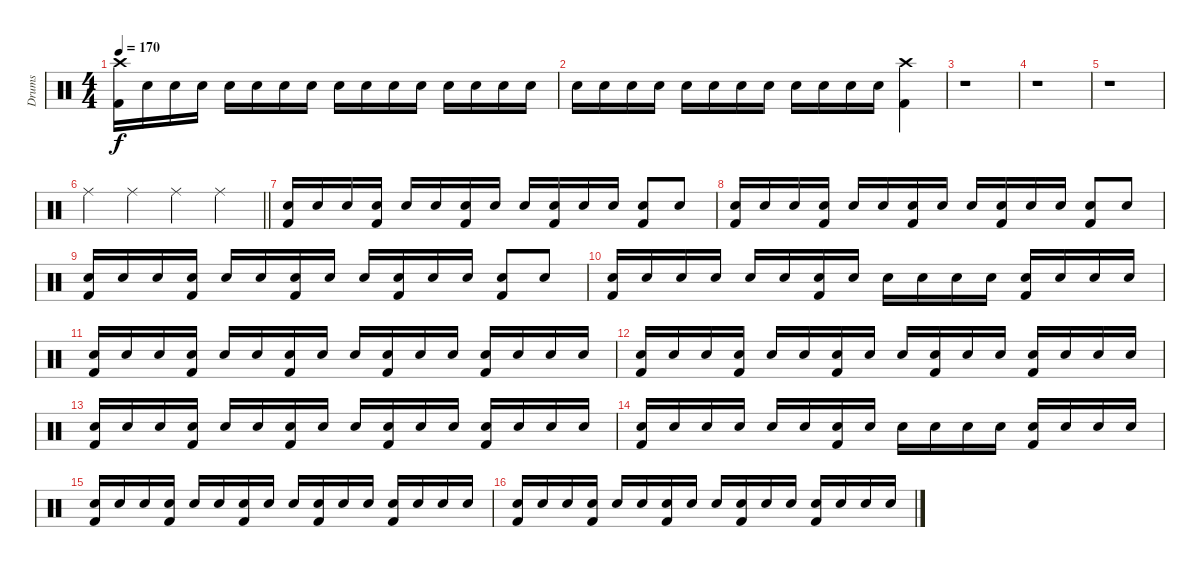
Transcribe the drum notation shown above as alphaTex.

\track ("Drums" "Drums") {instrument percussion}
\staff {score}
\articulation defaults
\ts (4 4)
\tempo 170
\clef neutral
\ks c
("Crash high (hit)" "Kick (hit) 2").16{dy f} "Snare (hit) 2".16 "Snare (hit) 2".16 "Snare (hit) 2".16 "Snare (hit) 2".16 "Snare (hit) 2".16 "Snare (hit) 2".16 "Snare (hit) 2".16 "Snare (hit) 2".16 "Snare (hit) 2".16 "Snare (hit) 2".16 "Snare (hit) 2".16 "Snare (hit) 2".16 "Snare (hit) 2".16 "Snare (hit) 2".16 "Snare (hit) 2".16 |
"Snare (hit) 2".16 "Snare (hit) 2".16 "Snare (hit) 2".16 "Snare (hit) 2".16 "Snare (hit) 2".16 "Snare (hit) 2".16 "Snare (hit) 2".16 "Snare (hit) 2".16 "Snare (hit) 2".16 "Snare (hit) 2".16 "Snare (hit) 2".16 "Snare (hit) 2".16 ("Crash high (hit)" "Kick (hit) 2").4 |
r.1 |
r.1 |
r.1 |
\barLineRight lightlight "Ride (middle)".4 "Ride (middle)".4 "Ride (middle)".4 "Ride (middle)".4
|
("Snare (hit) 2" "Kick (hit) 2").16 "Snare (hit) 2".16 "Snare (hit) 2".16 ("Snare (hit) 2" "Kick (hit) 2").16 "Snare (hit) 2".16 "Snare (hit) 2".16 ("Snare (hit) 2" "Kick (hit) 2").16 "Snare (hit) 2".16 "Snare (hit) 2".16 ("Snare (hit) 2" "Kick (hit) 2").16 "Snare (hit) 2".16 "Snare (hit) 2".16 ("Snare (hit) 2" "Kick (hit) 2").8 "Snare (hit) 2".8 |
("Snare (hit) 2" "Kick (hit) 2").16 "Snare (hit) 2".16 "Snare (hit) 2".16 ("Snare (hit) 2" "Kick (hit) 2").16 "Snare (hit) 2".16 "Snare (hit) 2".16 ("Snare (hit) 2" "Kick (hit) 2").16 "Snare (hit) 2".16 "Snare (hit) 2".16 ("Snare (hit) 2" "Kick (hit) 2").16 "Snare (hit) 2".16 "Snare (hit) 2".16 ("Snare (hit) 2" "Kick (hit) 2").8 "Snare (hit) 2".8 |
("Snare (hit) 2" "Kick (hit) 2").16 "Snare (hit) 2".16 "Snare (hit) 2".16 ("Snare (hit) 2" "Kick (hit) 2").16 "Snare (hit) 2".16 "Snare (hit) 2".16 ("Snare (hit) 2" "Kick (hit) 2").16 "Snare (hit) 2".16 "Snare (hit) 2".16 ("Snare (hit) 2" "Kick (hit) 2").16 "Snare (hit) 2".16 "Snare (hit) 2".16 ("Snare (hit) 2" "Kick (hit) 2").8 "Snare (hit) 2".8 |
("Snare (hit) 2" "Kick (hit) 2").16 "Snare (hit) 2".16 "Snare (hit) 2".16 "Snare (hit) 2".16 "Snare (hit) 2".16 "Snare (hit) 2".16 ("Snare (hit) 2" "Kick (hit) 2").16 "Snare (hit) 2".16 "Snare (hit) 2".16 "Snare (hit) 2".16 "Snare (hit) 2".16 "Snare (hit) 2".16 ("Snare (hit) 2" "Kick (hit) 2").16 "Snare (hit) 2".16 "Snare (hit) 2".16 "Snare (hit) 2".16 |
("Snare (hit) 2" "Kick (hit) 2").16 "Snare (hit) 2".16 "Snare (hit) 2".16 ("Snare (hit) 2" "Kick (hit) 2").16 "Snare (hit) 2".16 "Snare (hit) 2".16 ("Snare (hit) 2" "Kick (hit) 2").16 "Snare (hit) 2".16 "Snare (hit) 2".16 ("Snare (hit) 2" "Kick (hit) 2").16 "Snare (hit) 2".16 "Snare (hit) 2".16 ("Snare (hit) 2" "Kick (hit) 2").16 "Snare (hit) 2".16 "Snare (hit) 2".16 "Snare (hit) 2".16 |
("Snare (hit) 2" "Kick (hit) 2").16 "Snare (hit) 2".16 "Snare (hit) 2".16 ("Snare (hit) 2" "Kick (hit) 2").16 "Snare (hit) 2".16 "Snare (hit) 2".16 ("Snare (hit) 2" "Kick (hit) 2").16 "Snare (hit) 2".16 "Snare (hit) 2".16 ("Snare (hit) 2" "Kick (hit) 2").16 "Snare (hit) 2".16 "Snare (hit) 2".16 ("Snare (hit) 2" "Kick (hit) 2").16 "Snare (hit) 2".16 "Snare (hit) 2".16 "Snare (hit) 2".16 |
("Snare (hit) 2" "Kick (hit) 2").16 "Snare (hit) 2".16 "Snare (hit) 2".16 ("Snare (hit) 2" "Kick (hit) 2").16 "Snare (hit) 2".16 "Snare (hit) 2".16 ("Snare (hit) 2" "Kick (hit) 2").16 "Snare (hit) 2".16 "Snare (hit) 2".16 ("Snare (hit) 2" "Kick (hit) 2").16 "Snare (hit) 2".16 "Snare (hit) 2".16 ("Snare (hit) 2" "Kick (hit) 2").16 "Snare (hit) 2".16 "Snare (hit) 2".16 "Snare (hit) 2".16 |
("Snare (hit) 2" "Kick (hit) 2").16 "Snare (hit) 2".16 "Snare (hit) 2".16 "Snare (hit) 2".16 "Snare (hit) 2".16 "Snare (hit) 2".16 ("Snare (hit) 2" "Kick (hit) 2").16 "Snare (hit) 2".16 "Snare (hit) 2".16 "Snare (hit) 2".16 "Snare (hit) 2".16 "Snare (hit) 2".16 ("Snare (hit) 2" "Kick (hit) 2").16 "Snare (hit) 2".16 "Snare (hit) 2".16 "Snare (hit) 2".16 |
("Snare (hit) 2" "Kick (hit) 2").16 "Snare (hit) 2".16 "Snare (hit) 2".16 ("Snare (hit) 2" "Kick (hit) 2").16 "Snare (hit) 2".16 "Snare (hit) 2".16 ("Snare (hit) 2" "Kick (hit) 2").16 "Snare (hit) 2".16 "Snare (hit) 2".16 ("Snare (hit) 2" "Kick (hit) 2").16 "Snare (hit) 2".16 "Snare (hit) 2".16 ("Snare (hit) 2" "Kick (hit) 2").16 "Snare (hit) 2".16 "Snare (hit) 2".16 "Snare (hit) 2".16 |
("Snare (hit) 2" "Kick (hit) 2").16 "Snare (hit) 2".16 "Snare (hit) 2".16 ("Snare (hit) 2" "Kick (hit) 2").16 "Snare (hit) 2".16 "Snare (hit) 2".16 ("Snare (hit) 2" "Kick (hit) 2").16 "Snare (hit) 2".16 "Snare (hit) 2".16 ("Snare (hit) 2" "Kick (hit) 2").16 "Snare (hit) 2".16 "Snare (hit) 2".16 ("Snare (hit) 2" "Kick (hit) 2").16 "Snare (hit) 2".16 "Snare (hit) 2".16 "Snare (hit) 2".16
